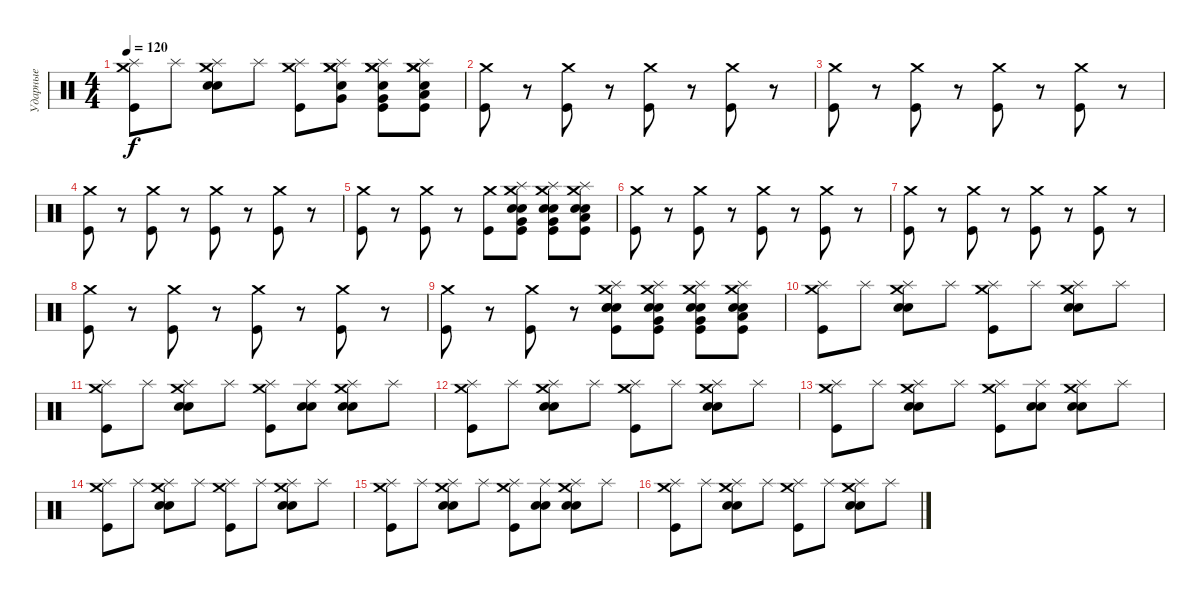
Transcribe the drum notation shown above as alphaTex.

\track ("Ударные" "Ударные") {instrument percussion}
\staff {score}
\articulation defaults
\ts (4 4)
\tempo 120
\clef neutral
\ks c
("Crash medium (hit)" "Splash (hit)" "Kick (hit)").8{dy f} "Splash (hit)".8 ("Crash medium (hit)" "Splash (hit)" "Electric Snare (hit)" "Electric Snare (hit)").8 "Splash (hit)".8 ("Crash medium (hit)" "Splash (hit)" "Kick (hit)").8 ("Crash medium (hit)" "Splash (hit)" "Snare (hit) 2" "Very Low Tom (hit)" "Crash medium (hit)").8 ("Crash medium (hit)" "Splash (hit)" "Electric Snare (hit)" "Very Low Tom (hit)" "Crash medium (hit)" "Kick (hit)").8 ("Crash medium (hit)" "Splash (hit)" "Snare (hit) 2" "Low Floor Tom (hit)" "Crash medium (hit)" "Kick (hit)").8 |
("Crash medium (hit)" "Kick (hit)").8 r.8 ("Crash medium (hit)" "Kick (hit)").8 r.8 ("Crash medium (hit)" "Kick (hit)").8 r.8 ("Crash medium (hit)" "Kick (hit)").8 r.8 |
("Crash medium (hit)" "Kick (hit)").8 r.8 ("Crash medium (hit)" "Kick (hit)").8 r.8 ("Crash medium (hit)" "Kick (hit)").8 r.8 ("Crash medium (hit)" "Kick (hit)").8 r.8 |
("Crash medium (hit)" "Kick (hit)").8 r.8 ("Crash medium (hit)" "Kick (hit)").8 r.8 ("Crash medium (hit)" "Kick (hit)").8 r.8 ("Crash medium (hit)" "Kick (hit)").8 r.8 |
("Crash medium (hit)" "Kick (hit)").8 r.8 ("Crash medium (hit)" "Kick (hit)").8 r.8 ("Crash medium (hit)" "Kick (hit)").8 ("Crash medium (hit)" "Splash (hit)" "Snare (hit) 2" "Snare (hit) 2" "Very Low Tom (hit)" "Kick (hit)").8 ("Crash medium (hit)" "Splash (hit)" "Snare (hit) 2" "Snare (hit) 2" "Very Low Tom (hit)" "Kick (hit)").8 ("Crash medium (hit)" "Splash (hit)" "Snare (hit) 2" "Snare (hit) 2" "Low Floor Tom (hit)" "Kick (hit)").8 |
("Crash medium (hit)" "Kick (hit)").8 r.8 ("Crash medium (hit)" "Kick (hit)").8 r.8 ("Crash medium (hit)" "Kick (hit)").8 r.8 ("Crash medium (hit)" "Kick (hit)").8 r.8 |
("Crash medium (hit)" "Kick (hit)").8 r.8 ("Crash medium (hit)" "Kick (hit)").8 r.8 ("Crash medium (hit)" "Kick (hit)").8 r.8 ("Crash medium (hit)" "Kick (hit)").8 r.8 |
("Crash medium (hit)" "Kick (hit)").8 r.8 ("Crash medium (hit)" "Kick (hit)").8 r.8 ("Crash medium (hit)" "Kick (hit)").8 r.8 ("Crash medium (hit)" "Kick (hit)").8 r.8 |
("Crash medium (hit)" "Kick (hit)").8 r.8 ("Crash medium (hit)" "Kick (hit)").8 r.8 ("Crash medium (hit)" "Splash (hit)" "Snare (hit) 2" "Snare (hit) 2" "Electric Snare (hit)" "Kick (hit)").8 ("Crash medium (hit)" "Splash (hit)" "Snare (hit) 2" "Snare (hit) 2" "Very Low Tom (hit)" "Kick (hit)").8 ("Crash medium (hit)" "Splash (hit)" "Snare (hit) 2" "Snare (hit) 2" "Very Low Tom (hit)" "Kick (hit)").8 ("Crash medium (hit)" "Splash (hit)" "Snare (hit) 2" "Snare (hit) 2" "Low Floor Tom (hit)" "Kick (hit)").8 |
("Crash medium (hit)" "Splash (hit)" "Kick (hit)").8 "Splash (hit)".8 ("Crash medium (hit)" "Splash (hit)" "Electric Snare (hit)" "Electric Snare (hit)").8 "Splash (hit)".8 ("Crash medium (hit)" "Splash (hit)" "Kick (hit)").8 "Splash (hit)".8 ("Crash medium (hit)" "Splash (hit)" "Electric Snare (hit)" "Electric Snare (hit)").8 "Splash (hit)".8 |
("Crash medium (hit)" "Splash (hit)" "Kick (hit)").8 "Splash (hit)".8 ("Crash medium (hit)" "Splash (hit)" "Electric Snare (hit)" "Electric Snare (hit)").8 "Splash (hit)".8 ("Crash medium (hit)" "Splash (hit)" "Kick (hit)").8 ("Splash (hit)" "Snare (hit) 2" "Snare (hit) 2").8 ("Crash medium (hit)" "Splash (hit)" "Electric Snare (hit)" "Electric Snare (hit)").8 "Splash (hit)".8 |
("Crash medium (hit)" "Splash (hit)" "Kick (hit)").8 "Splash (hit)".8 ("Crash medium (hit)" "Splash (hit)" "Electric Snare (hit)" "Electric Snare (hit)").8 "Splash (hit)".8 ("Crash medium (hit)" "Splash (hit)" "Kick (hit)").8 "Splash (hit)".8 ("Crash medium (hit)" "Splash (hit)" "Electric Snare (hit)" "Electric Snare (hit)").8 "Splash (hit)".8 |
("Crash medium (hit)" "Splash (hit)" "Kick (hit)").8 "Splash (hit)".8 ("Crash medium (hit)" "Splash (hit)" "Electric Snare (hit)" "Electric Snare (hit)").8 "Splash (hit)".8 ("Crash medium (hit)" "Splash (hit)" "Kick (hit)").8 ("Splash (hit)" "Snare (hit) 2" "Snare (hit) 2").8 ("Crash medium (hit)" "Splash (hit)" "Electric Snare (hit)" "Electric Snare (hit)").8 "Splash (hit)".8 |
("Crash medium (hit)" "Splash (hit)" "Kick (hit)").8 "Splash (hit)".8 ("Crash medium (hit)" "Splash (hit)" "Electric Snare (hit)" "Electric Snare (hit)").8 "Splash (hit)".8 ("Crash medium (hit)" "Splash (hit)" "Kick (hit)").8 "Splash (hit)".8 ("Crash medium (hit)" "Splash (hit)" "Electric Snare (hit)" "Electric Snare (hit)").8 "Splash (hit)".8 |
("Crash medium (hit)" "Splash (hit)" "Kick (hit)").8 "Splash (hit)".8 ("Crash medium (hit)" "Splash (hit)" "Electric Snare (hit)" "Electric Snare (hit)").8 "Splash (hit)".8 ("Crash medium (hit)" "Splash (hit)" "Kick (hit)").8 ("Splash (hit)" "Snare (hit) 2" "Snare (hit) 2").8 ("Crash medium (hit)" "Splash (hit)" "Electric Snare (hit)" "Electric Snare (hit)").8 "Splash (hit)".8 |
("Crash medium (hit)" "Splash (hit)" "Kick (hit)").8 "Splash (hit)".8 ("Crash medium (hit)" "Splash (hit)" "Electric Snare (hit)" "Electric Snare (hit)").8 "Splash (hit)".8 ("Crash medium (hit)" "Splash (hit)" "Kick (hit)").8 "Splash (hit)".8 ("Crash medium (hit)" "Splash (hit)" "Electric Snare (hit)" "Electric Snare (hit)").8 "Splash (hit)".8
